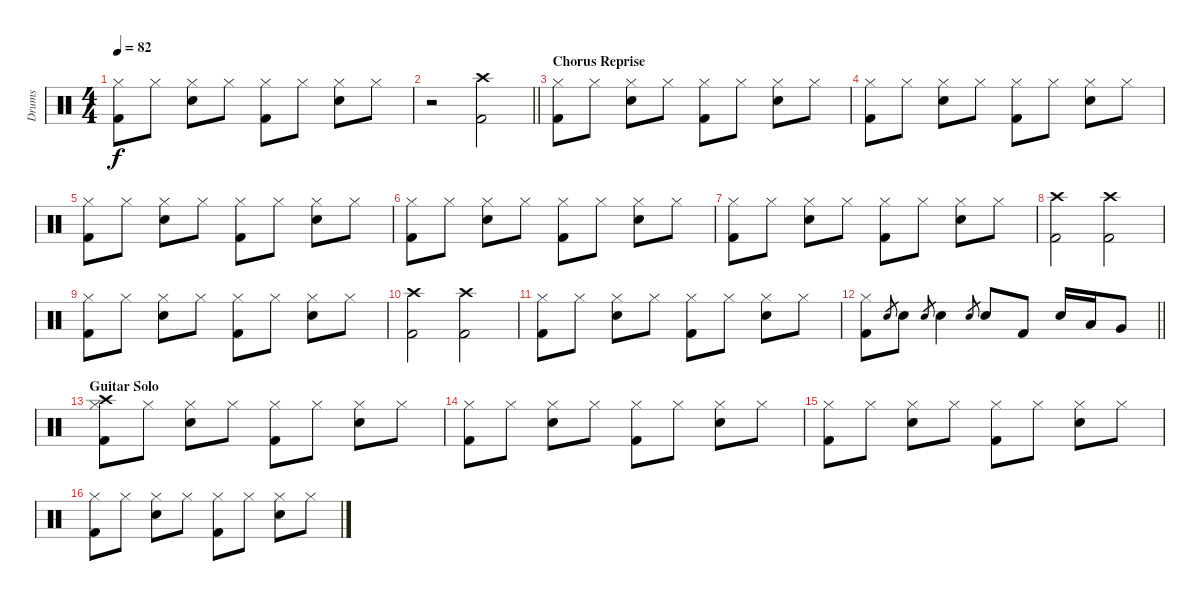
\track ("Drums" "Drums") {instrument percussion}
\staff {score}
\articulation defaults
\ts (4 4)
\tempo 82
\clef neutral
\ks c
("Hi-Hat (closed)" "Kick (hit) 2").8{dy f} "Hi-Hat (closed)".8 ("Hi-Hat (closed)" "Snare (hit) 2").8 "Hi-Hat (closed)".8 ("Hi-Hat (closed)" "Kick (hit) 2").8 "Hi-Hat (closed)".8 ("Hi-Hat (closed)" "Snare (hit) 2").8 "Hi-Hat (closed)".8 |
\barLineRight lightlight
r.2 ("Kick (hit) 2" "Crash high (hit)").2 |
\section ("" "Chorus Reprise")
("Hi-Hat (closed)" "Kick (hit) 2").8 "Hi-Hat (closed)".8 ("Hi-Hat (closed)" "Snare (hit) 2").8 "Hi-Hat (closed)".8 ("Hi-Hat (closed)" "Kick (hit) 2").8 "Hi-Hat (closed)".8 ("Hi-Hat (closed)" "Snare (hit) 2").8 "Hi-Hat (closed)".8 |
("Hi-Hat (closed)" "Kick (hit) 2").8 "Hi-Hat (closed)".8 ("Hi-Hat (closed)" "Snare (hit) 2").8 "Hi-Hat (closed)".8 ("Hi-Hat (closed)" "Kick (hit) 2").8 "Hi-Hat (closed)".8 ("Hi-Hat (closed)" "Snare (hit) 2").8 "Hi-Hat (closed)".8 |
("Hi-Hat (closed)" "Kick (hit) 2").8 "Hi-Hat (closed)".8 ("Hi-Hat (closed)" "Snare (hit) 2").8 "Hi-Hat (closed)".8 ("Hi-Hat (closed)" "Kick (hit) 2").8 "Hi-Hat (closed)".8 ("Hi-Hat (closed)" "Snare (hit) 2").8 "Hi-Hat (closed)".8 |
("Hi-Hat (closed)" "Kick (hit) 2").8 "Hi-Hat (closed)".8 ("Hi-Hat (closed)" "Snare (hit) 2").8 "Hi-Hat (closed)".8 ("Hi-Hat (closed)" "Kick (hit) 2").8 "Hi-Hat (closed)".8 ("Hi-Hat (closed)" "Snare (hit) 2").8 "Hi-Hat (closed)".8 |
("Hi-Hat (closed)" "Kick (hit) 2").8 "Hi-Hat (closed)".8 ("Hi-Hat (closed)" "Snare (hit) 2").8 "Hi-Hat (closed)".8 ("Hi-Hat (closed)" "Kick (hit) 2").8 "Hi-Hat (closed)".8 ("Hi-Hat (closed)" "Snare (hit) 2").8 "Hi-Hat (closed)".8 |
("Kick (hit) 2" "Crash high (hit)").2 ("Kick (hit) 2" "Crash high (hit)").2 |
("Hi-Hat (closed)" "Kick (hit) 2").8 "Hi-Hat (closed)".8 ("Hi-Hat (closed)" "Snare (hit) 2").8 "Hi-Hat (closed)".8 ("Hi-Hat (closed)" "Kick (hit) 2").8 "Hi-Hat (closed)".8 ("Hi-Hat (closed)" "Snare (hit) 2").8 "Hi-Hat (closed)".8 |
("Kick (hit) 2" "Crash high (hit)").2 ("Kick (hit) 2" "Crash high (hit)").2 |
("Hi-Hat (closed)" "Kick (hit) 2").8 "Hi-Hat (closed)".8 ("Hi-Hat (closed)" "Snare (hit) 2").8 "Hi-Hat (closed)".8 ("Hi-Hat (closed)" "Kick (hit) 2").8 "Hi-Hat (closed)".8 ("Hi-Hat (closed)" "Snare (hit) 2").8 "Hi-Hat (closed)".8 |
\barLineRight lightlight
("Hi-Hat (closed)" "Kick (hit) 2").8 "Snare (hit) 2".8{gr} "Snare (hit) 2".8 "Snare (hit) 2".8{gr} "Snare (hit) 2".4 "Snare (hit) 2".8{gr} "Snare (hit) 2".8 "Kick (hit) 2".8 "Snare (hit) 2".16 "Low Tom (hit)".16 "Very Low Tom (hit)".8 |
\section ("" "Guitar Solo")
("Hi-Hat (closed)" "Kick (hit) 2" "Crash high (hit)").8 "Hi-Hat (closed)".8 ("Hi-Hat (closed)" "Snare (hit) 2").8 "Hi-Hat (closed)".8 ("Hi-Hat (closed)" "Kick (hit) 2").8 "Hi-Hat (closed)".8 ("Hi-Hat (closed)" "Snare (hit) 2").8 "Hi-Hat (closed)".8 |
("Hi-Hat (closed)" "Kick (hit) 2").8 "Hi-Hat (closed)".8 ("Hi-Hat (closed)" "Snare (hit) 2").8 "Hi-Hat (closed)".8 ("Hi-Hat (closed)" "Kick (hit) 2").8 "Hi-Hat (closed)".8 ("Hi-Hat (closed)" "Snare (hit) 2").8 "Hi-Hat (closed)".8 |
("Hi-Hat (closed)" "Kick (hit) 2").8 "Hi-Hat (closed)".8 ("Hi-Hat (closed)" "Snare (hit) 2").8 "Hi-Hat (closed)".8 ("Hi-Hat (closed)" "Kick (hit) 2").8 "Hi-Hat (closed)".8 ("Hi-Hat (closed)" "Snare (hit) 2").8 "Hi-Hat (closed)".8 |
("Hi-Hat (closed)" "Kick (hit) 2").8 "Hi-Hat (closed)".8 ("Hi-Hat (closed)" "Snare (hit) 2").8 "Hi-Hat (closed)".8 ("Hi-Hat (closed)" "Kick (hit) 2").8 "Hi-Hat (closed)".8 ("Hi-Hat (closed)" "Snare (hit) 2").8 "Hi-Hat (closed)".8
